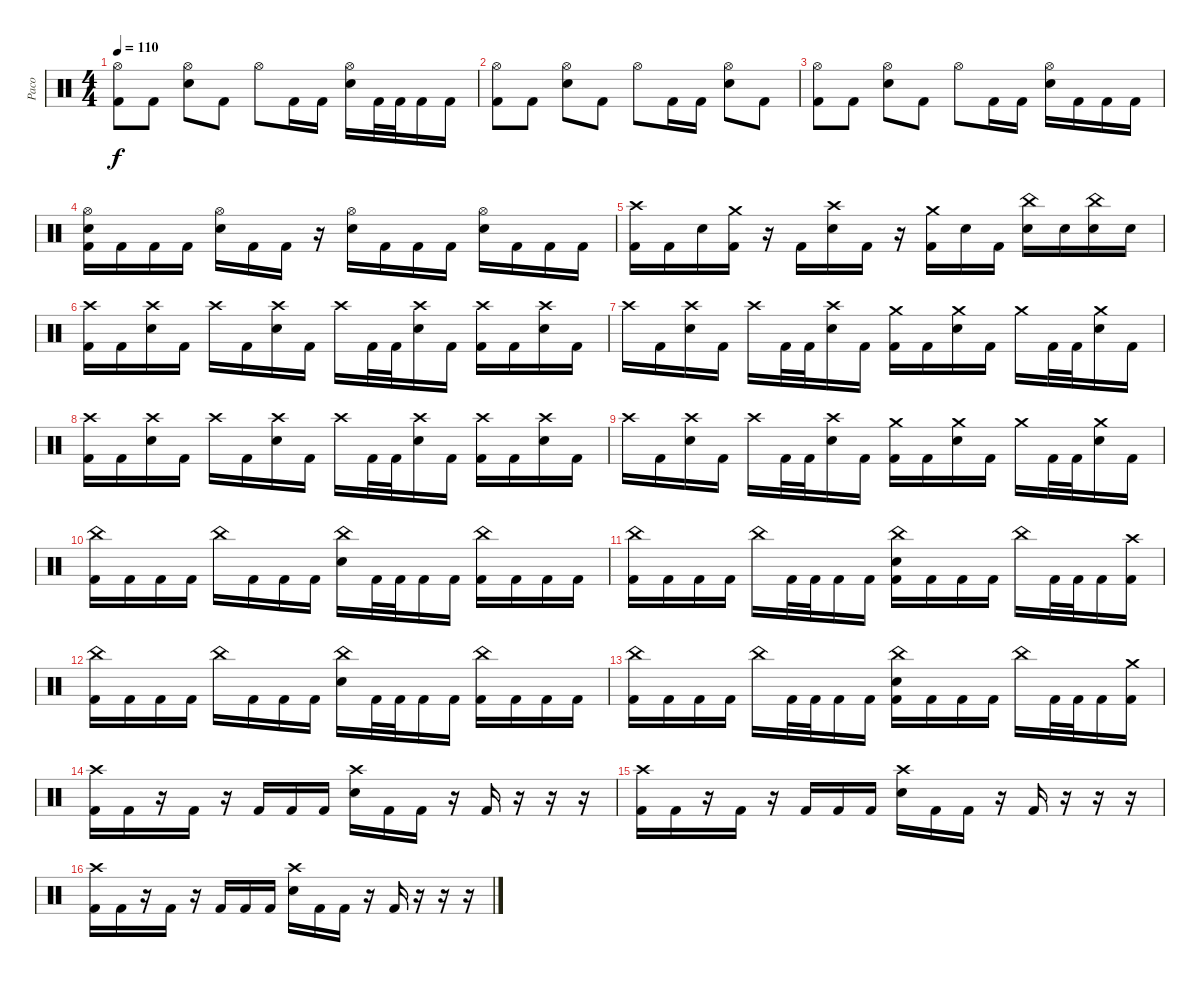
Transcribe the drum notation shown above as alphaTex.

\track ("Paco" "Paco") {instrument percussion}
\staff {score}
\articulation defaults
\ts (4 4)
\tempo 110
\clef neutral
\ks c
("Hi-Hat (open)" "Kick (hit) 2").8{dy f} "Kick (hit) 2".8 ("Hi-Hat (open)" "Electric Snare (hit)").8 "Kick (hit) 2".8 "Hi-Hat (open)".8 "Kick (hit) 2".16 "Kick (hit) 2".16 ("Hi-Hat (open)" "Electric Snare (hit)").16 "Kick (hit) 2".32 "Kick (hit) 2".32 "Kick (hit) 2".16 "Kick (hit) 2".16 |
("Hi-Hat (open)" "Kick (hit) 2").8 "Kick (hit) 2".8 ("Hi-Hat (open)" "Electric Snare (hit)").8 "Kick (hit) 2".8 "Hi-Hat (open)".8 "Kick (hit) 2".16 "Kick (hit) 2".16 ("Hi-Hat (open)" "Electric Snare (hit)").8 "Kick (hit) 2".8 |
("Hi-Hat (open)" "Kick (hit) 2").8 "Kick (hit) 2".8 ("Hi-Hat (open)" "Electric Snare (hit)").8 "Kick (hit) 2".8 "Hi-Hat (open)".8 "Kick (hit) 2".16 "Kick (hit) 2".16 ("Hi-Hat (open)" "Electric Snare (hit)").16 "Kick (hit) 2".16 "Kick (hit) 2".16 "Kick (hit) 2".16 |
("Hi-Hat (open)" "Electric Snare (hit)" "Kick (hit) 2").16 "Kick (hit) 2".16 "Kick (hit) 2".16 "Kick (hit) 2".16 ("Hi-Hat (open)" "Electric Snare (hit)").16 "Kick (hit) 2".16 "Kick (hit) 2".16 r.16 ("Hi-Hat (open)" "Electric Snare (hit)").16 "Kick (hit) 2".16 "Kick (hit) 2".16 "Kick (hit) 2".16 ("Hi-Hat (open)" "Electric Snare (hit)").16 "Kick (hit) 2".16 "Kick (hit) 2".16 "Kick (hit) 2".16 |
("Crash high (hit)" "Kick (hit) 2").16 "Kick (hit) 2".16 "Electric Snare (hit)".16 ("Crash medium (hit)" "Kick (hit) 2").16 r.16 "Kick (hit) 2".16 ("Crash high (hit)" "Electric Snare (hit)").16 "Kick (hit) 2".16 r.16 ("Crash medium (hit)" "Kick (hit) 2").16 "Electric Snare (hit)".16 "Kick (hit) 2".16 ("China (hit)" "Electric Snare (hit)").16 "Electric Snare (hit)".16 ("China (hit)" "Electric Snare (hit)").16 "Electric Snare (hit)".16 |
("Crash high (hit)" "Kick (hit) 2").16 "Kick (hit) 2".16 ("Crash high (hit)" "Electric Snare (hit)").16 "Kick (hit) 2".16 "Crash high (hit)".16 "Kick (hit) 2".16 ("Crash high (hit)" "Electric Snare (hit)").16 "Kick (hit) 2".16 "Crash high (hit)".16 "Kick (hit) 2".32 "Kick (hit) 2".32 ("Crash high (hit)" "Electric Snare (hit)").16 "Kick (hit) 2".16 ("Crash high (hit)" "Kick (hit) 2").16 "Kick (hit) 2".16 ("Crash high (hit)" "Electric Snare (hit)").16 "Kick (hit) 2".16 |
"Crash high (hit)".16 "Kick (hit) 2".16 ("Crash high (hit)" "Electric Snare (hit)").16 "Kick (hit) 2".16 "Crash high (hit)".16 "Kick (hit) 2".32 "Kick (hit) 2".32 ("Crash high (hit)" "Electric Snare (hit)").16 "Kick (hit) 2".16 ("Crash medium (hit)" "Kick (hit) 2").16 "Kick (hit) 2".16 ("Crash medium (hit)" "Electric Snare (hit)").16 "Kick (hit) 2".16 "Crash medium (hit)".16 "Kick (hit) 2".32 "Kick (hit) 2".32 ("Crash medium (hit)" "Electric Snare (hit)").16 "Kick (hit) 2".16 |
("Crash high (hit)" "Kick (hit) 2").16 "Kick (hit) 2".16 ("Crash high (hit)" "Electric Snare (hit)").16 "Kick (hit) 2".16 "Crash high (hit)".16 "Kick (hit) 2".16 ("Crash high (hit)" "Electric Snare (hit)").16 "Kick (hit) 2".16 "Crash high (hit)".16 "Kick (hit) 2".32 "Kick (hit) 2".32 ("Crash high (hit)" "Electric Snare (hit)").16 "Kick (hit) 2".16 ("Crash high (hit)" "Kick (hit) 2").16 "Kick (hit) 2".16 ("Crash high (hit)" "Electric Snare (hit)").16 "Kick (hit) 2".16 |
"Crash high (hit)".16 "Kick (hit) 2".16 ("Crash high (hit)" "Electric Snare (hit)").16 "Kick (hit) 2".16 "Crash high (hit)".16 "Kick (hit) 2".32 "Kick (hit) 2".32 ("Crash high (hit)" "Electric Snare (hit)").16 "Kick (hit) 2".16 ("Crash medium (hit)" "Kick (hit) 2").16 "Kick (hit) 2".16 ("Crash medium (hit)" "Electric Snare (hit)").16 "Kick (hit) 2".16 "Crash medium (hit)".16 "Kick (hit) 2".32 "Kick (hit) 2".32 ("Crash medium (hit)" "Electric Snare (hit)").16 "Kick (hit) 2".16 |
("China (hit)" "Kick (hit) 2").16 "Kick (hit) 2".16 "Kick (hit) 2".16 "Kick (hit) 2".16 "China (hit)".16 "Kick (hit) 2".16 "Kick (hit) 2".16 "Kick (hit) 2".16 ("Electric Snare (hit)" "China (hit)").16 "Kick (hit) 2".32 "Kick (hit) 2".32 "Kick (hit) 2".16 "Kick (hit) 2".16 ("China (hit)" "Kick (hit) 2").16 "Kick (hit) 2".16 "Kick (hit) 2".16 "Kick (hit) 2".16 |
("China (hit)" "Kick (hit) 2").16 "Kick (hit) 2".16 "Kick (hit) 2".16 "Kick (hit) 2".16 "China (hit)".16 "Kick (hit) 2".32 "Kick (hit) 2".32 "Kick (hit) 2".16 "Kick (hit) 2".16 ("Electric Snare (hit)" "China (hit)" "Kick (hit) 2").16 "Kick (hit) 2".16 "Kick (hit) 2".16 "Kick (hit) 2".16 "China (hit)".16 "Kick (hit) 2".32 "Kick (hit) 2".32 "Kick (hit) 2".16 ("Crash high (hit)" "Kick (hit) 2").16 |
("China (hit)" "Kick (hit) 2").16 "Kick (hit) 2".16 "Kick (hit) 2".16 "Kick (hit) 2".16 "China (hit)".16 "Kick (hit) 2".16 "Kick (hit) 2".16 "Kick (hit) 2".16 ("Electric Snare (hit)" "China (hit)").16 "Kick (hit) 2".32 "Kick (hit) 2".32 "Kick (hit) 2".16 "Kick (hit) 2".16 ("China (hit)" "Kick (hit) 2").16 "Kick (hit) 2".16 "Kick (hit) 2".16 "Kick (hit) 2".16 |
("China (hit)" "Kick (hit) 2").16 "Kick (hit) 2".16 "Kick (hit) 2".16 "Kick (hit) 2".16 "China (hit)".16 "Kick (hit) 2".32 "Kick (hit) 2".32 "Kick (hit) 2".16 "Kick (hit) 2".16 ("Electric Snare (hit)" "China (hit)" "Kick (hit) 2").16 "Kick (hit) 2".16 "Kick (hit) 2".16 "Kick (hit) 2".16 "China (hit)".16 "Kick (hit) 2".32 "Kick (hit) 2".32 "Kick (hit) 2".16 ("Crash medium (hit)" "Kick (hit) 2").16 |
("Crash high (hit)" "Kick (hit) 2").16 "Kick (hit) 2".16 r.16 "Kick (hit) 2".16 r.16 "Kick (hit) 2".16 "Kick (hit) 2".16 "Kick (hit) 2".16 ("Crash high (hit)" "Electric Snare (hit)").16 "Kick (hit) 2".16 "Kick (hit) 2".16 r.16 "Kick (hit) 2".16 r.16 r.16 r.16 |
("Crash high (hit)" "Kick (hit) 2").16 "Kick (hit) 2".16 r.16 "Kick (hit) 2".16 r.16 "Kick (hit) 2".16 "Kick (hit) 2".16 "Kick (hit) 2".16 ("Crash high (hit)" "Electric Snare (hit)").16 "Kick (hit) 2".16 "Kick (hit) 2".16 r.16 "Kick (hit) 2".16 r.16 r.16 r.16 |
("Crash high (hit)" "Kick (hit) 2").16 "Kick (hit) 2".16 r.16 "Kick (hit) 2".16 r.16 "Kick (hit) 2".16 "Kick (hit) 2".16 "Kick (hit) 2".16 ("Crash high (hit)" "Electric Snare (hit)").16 "Kick (hit) 2".16 "Kick (hit) 2".16 r.16 "Kick (hit) 2".16 r.16 r.16 r.16
